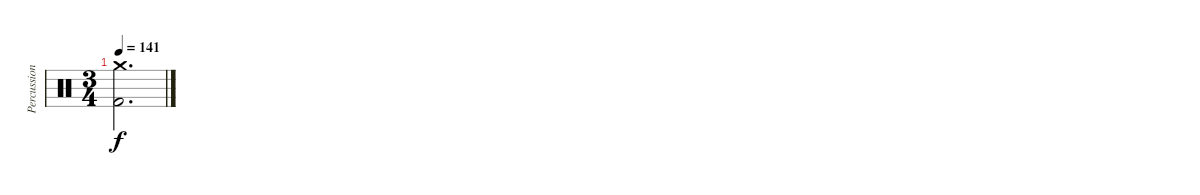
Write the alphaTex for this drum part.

\track ("Percussion" "Percussion") {instrument percussion}
\staff {score}
\articulation defaults
\ts (3 4)
\tempo 141
\clef neutral
\ks c
("Crash medium (hit)" "Kick (hit) 2").2{d dy f}
